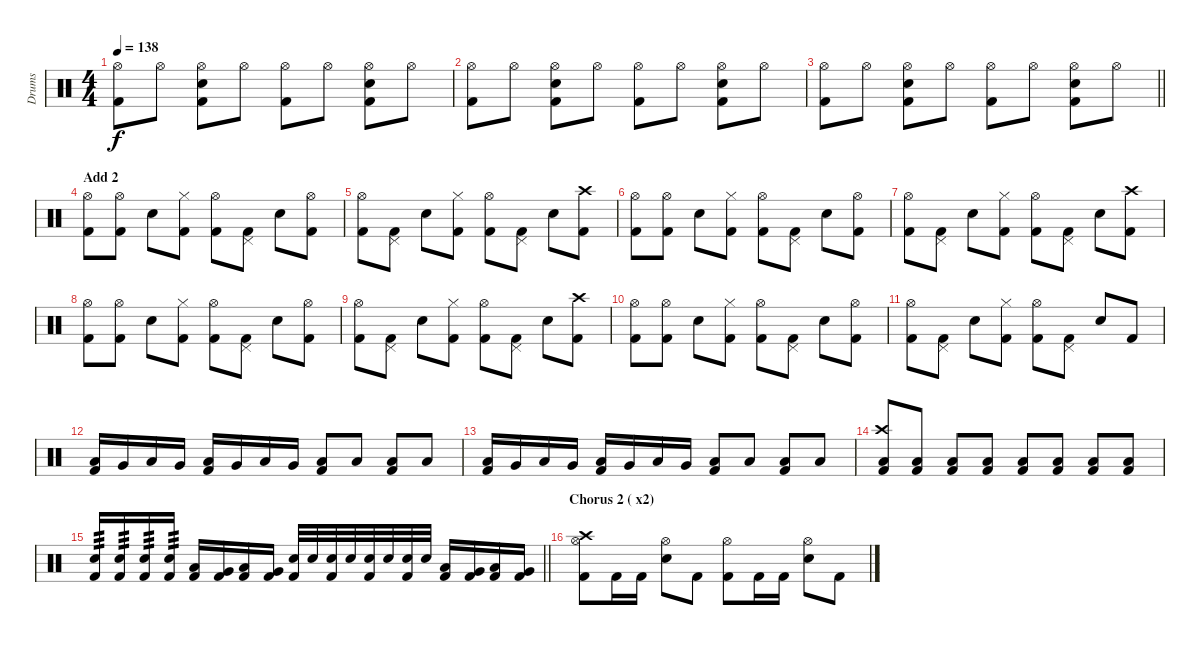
\track ("Drums" "Drums") {instrument percussion}
\staff {score}
\articulation defaults
\ts (4 4)
\tempo 138
\clef neutral
\ks c
("Hi-Hat (open)" "Kick (hit) 2").8{dy f} "Hi-Hat (open)".8 ("Electric Snare (hit)" "Hi-Hat (open)" "Kick (hit) 2").8 "Hi-Hat (open)".8 ("Hi-Hat (open)" "Kick (hit) 2").8 "Hi-Hat (open)".8 ("Electric Snare (hit)" "Hi-Hat (open)" "Kick (hit) 2").8 "Hi-Hat (open)".8 |
("Hi-Hat (open)" "Kick (hit) 2").8 "Hi-Hat (open)".8 ("Electric Snare (hit)" "Hi-Hat (open)" "Kick (hit) 2").8 "Hi-Hat (open)".8 ("Hi-Hat (open)" "Kick (hit) 2").8 "Hi-Hat (open)".8 ("Electric Snare (hit)" "Hi-Hat (open)" "Kick (hit) 2").8 "Hi-Hat (open)".8 |
\barLineRight lightlight
("Hi-Hat (open)" "Kick (hit) 2").8 "Hi-Hat (open)".8 ("Electric Snare (hit)" "Hi-Hat (open)" "Kick (hit) 2").8 "Hi-Hat (open)".8 ("Hi-Hat (open)" "Kick (hit) 2").8 "Hi-Hat (open)".8 ("Electric Snare (hit)" "Hi-Hat (open)" "Kick (hit) 2").8 "Hi-Hat (open)".8 |
\section ("" "Add 2")
("Hi-Hat (open)" "Kick (hit) 2").8 ("Hi-Hat (open)" "Kick (hit) 2").8 "Electric Snare (hit)".8 ("Hi-Hat (closed)" "Kick (hit) 2").8 ("Hi-Hat (open)" "Kick (hit) 2").8 ("Pedal Hi-Hat (hit)" "Kick (hit) 2").8 "Electric Snare (hit)".8 ("Hi-Hat (open)" "Kick (hit) 2").8 |
("Hi-Hat (open)" "Kick (hit) 2").8 ("Pedal Hi-Hat (hit)" "Kick (hit) 2").8 "Electric Snare (hit)".8 ("Hi-Hat (closed)" "Kick (hit) 2").8 ("Hi-Hat (open)" "Kick (hit) 2").8 ("Pedal Hi-Hat (hit)" "Kick (hit) 2").8 "Electric Snare (hit)".8 ("Crash high (hit)" "Kick (hit) 2").8 |
("Hi-Hat (open)" "Kick (hit) 2").8 ("Hi-Hat (open)" "Kick (hit) 2").8 "Electric Snare (hit)".8 ("Hi-Hat (closed)" "Kick (hit) 2").8 ("Hi-Hat (open)" "Kick (hit) 2").8 ("Pedal Hi-Hat (hit)" "Kick (hit) 2").8 "Electric Snare (hit)".8 ("Hi-Hat (open)" "Kick (hit) 2").8 |
("Hi-Hat (open)" "Kick (hit) 2").8 ("Pedal Hi-Hat (hit)" "Kick (hit) 2").8 "Electric Snare (hit)".8 ("Hi-Hat (closed)" "Kick (hit) 2").8 ("Hi-Hat (open)" "Kick (hit) 2").8 ("Pedal Hi-Hat (hit)" "Kick (hit) 2").8 "Electric Snare (hit)".8 ("Crash high (hit)" "Kick (hit) 2").8 |
("Hi-Hat (open)" "Kick (hit) 2").8 ("Hi-Hat (open)" "Kick (hit) 2").8 "Electric Snare (hit)".8 ("Hi-Hat (closed)" "Kick (hit) 2").8 ("Hi-Hat (open)" "Kick (hit) 2").8 ("Pedal Hi-Hat (hit)" "Kick (hit) 2").8 "Electric Snare (hit)".8 ("Hi-Hat (open)" "Kick (hit) 2").8 |
("Hi-Hat (open)" "Kick (hit) 2").8 ("Pedal Hi-Hat (hit)" "Kick (hit) 2").8 "Electric Snare (hit)".8 ("Hi-Hat (closed)" "Kick (hit) 2").8 ("Hi-Hat (open)" "Kick (hit) 2").8 ("Pedal Hi-Hat (hit)" "Kick (hit) 2").8 "Electric Snare (hit)".8 ("Crash high (hit)" "Kick (hit) 2").8 |
("Hi-Hat (open)" "Kick (hit) 2").8 ("Hi-Hat (open)" "Kick (hit) 2").8 "Electric Snare (hit)".8 ("Hi-Hat (closed)" "Kick (hit) 2").8 ("Hi-Hat (open)" "Kick (hit) 2").8 ("Pedal Hi-Hat (hit)" "Kick (hit) 2").8 "Electric Snare (hit)".8 ("Hi-Hat (open)" "Kick (hit) 2").8 |
("Hi-Hat (open)" "Kick (hit) 2").8 ("Pedal Hi-Hat (hit)" "Kick (hit) 2").8 "Electric Snare (hit)".8 ("Hi-Hat (closed)" "Kick (hit) 2").8 ("Hi-Hat (open)" "Kick (hit) 2").8 ("Pedal Hi-Hat (hit)" "Kick (hit) 2").8 "Electric Snare (hit)".8 "Kick (hit) 2".8 |
("Low Floor Tom (hit)" "Kick (hit) 2").16 "Very Low Tom (hit)".16 "Low Floor Tom (hit)".16 "Very Low Tom (hit)".16 ("Low Floor Tom (hit)" "Kick (hit) 2").16 "Very Low Tom (hit)".16 "Low Floor Tom (hit)".16 "Very Low Tom (hit)".16 ("Low Floor Tom (hit)" "Kick (hit) 2").8 "Low Floor Tom (hit)".8 ("Low Floor Tom (hit)" "Kick (hit) 2").8 "Low Floor Tom (hit)".8 |
("Low Floor Tom (hit)" "Kick (hit) 2").16 "Very Low Tom (hit)".16 "Low Floor Tom (hit)".16 "Very Low Tom (hit)".16 ("Low Floor Tom (hit)" "Kick (hit) 2").16 "Very Low Tom (hit)".16 "Low Floor Tom (hit)".16 "Very Low Tom (hit)".16 ("Low Floor Tom (hit)" "Kick (hit) 2").8 "Low Floor Tom (hit)".8 ("Low Floor Tom (hit)" "Kick (hit) 2").8 "Low Floor Tom (hit)".8 |
("Crash high (hit)" "Low Floor Tom (hit)" "Kick (hit) 2").8 ("Low Floor Tom (hit)" "Kick (hit) 2").8 ("Low Floor Tom (hit)" "Kick (hit) 2").8 ("Low Floor Tom (hit)" "Kick (hit) 2").8 ("Low Floor Tom (hit)" "Kick (hit) 2").8 ("Low Floor Tom (hit)" "Kick (hit) 2").8 ("Low Floor Tom (hit)" "Kick (hit) 2").8 ("Low Floor Tom (hit)" "Kick (hit) 2").8 |
\barLineRight lightlight
("Electric Snare (hit)" "Kick (hit) 2").16{tp 3} ("Electric Snare (hit)" "Kick (hit) 2").16{tp 3} ("Electric Snare (hit)" "Kick (hit) 2").16{tp 3} ("Electric Snare (hit)" "Kick (hit) 2").16{tp 3} ("Low Floor Tom (hit)" "Kick (hit) 2").16 ("Very Low Tom (hit)" "Kick (hit) 2").16 ("Low Tom (hit)" "Kick (hit) 2").16 ("Very Low Tom (hit)" "Kick (hit) 2").16 ("Electric Snare (hit)" "Kick (hit) 2").32 "Electric Snare (hit)".32 ("Electric Snare (hit)" "Kick (hit) 2").32 "Electric Snare (hit)".32 ("Electric Snare (hit)" "Kick (hit) 2").32 "Electric Snare (hit)".32 ("Electric Snare (hit)" "Kick (hit) 2").32 "Electric Snare (hit)".32 ("Low Floor Tom (hit)" "Kick (hit) 2").16 ("Very Low Tom (hit)" "Kick (hit) 2").16 ("Low Tom (hit)" "Kick (hit) 2").16 ("Very Low Tom (hit)" "Kick (hit) 2").16 |
\section ("" "Chorus 2 ( x2)")
("Crash high (hit)" "Hi-Hat (open)" "Kick (hit) 2").8 "Kick (hit) 2".16 "Kick (hit) 2".16 ("Hi-Hat (open)" "Electric Snare (hit)").8 "Kick (hit) 2".8 ("Hi-Hat (open)" "Kick (hit) 2").8 "Kick (hit) 2".16 "Kick (hit) 2".16 ("Hi-Hat (open)" "Electric Snare (hit)").8 "Kick (hit) 2".8
